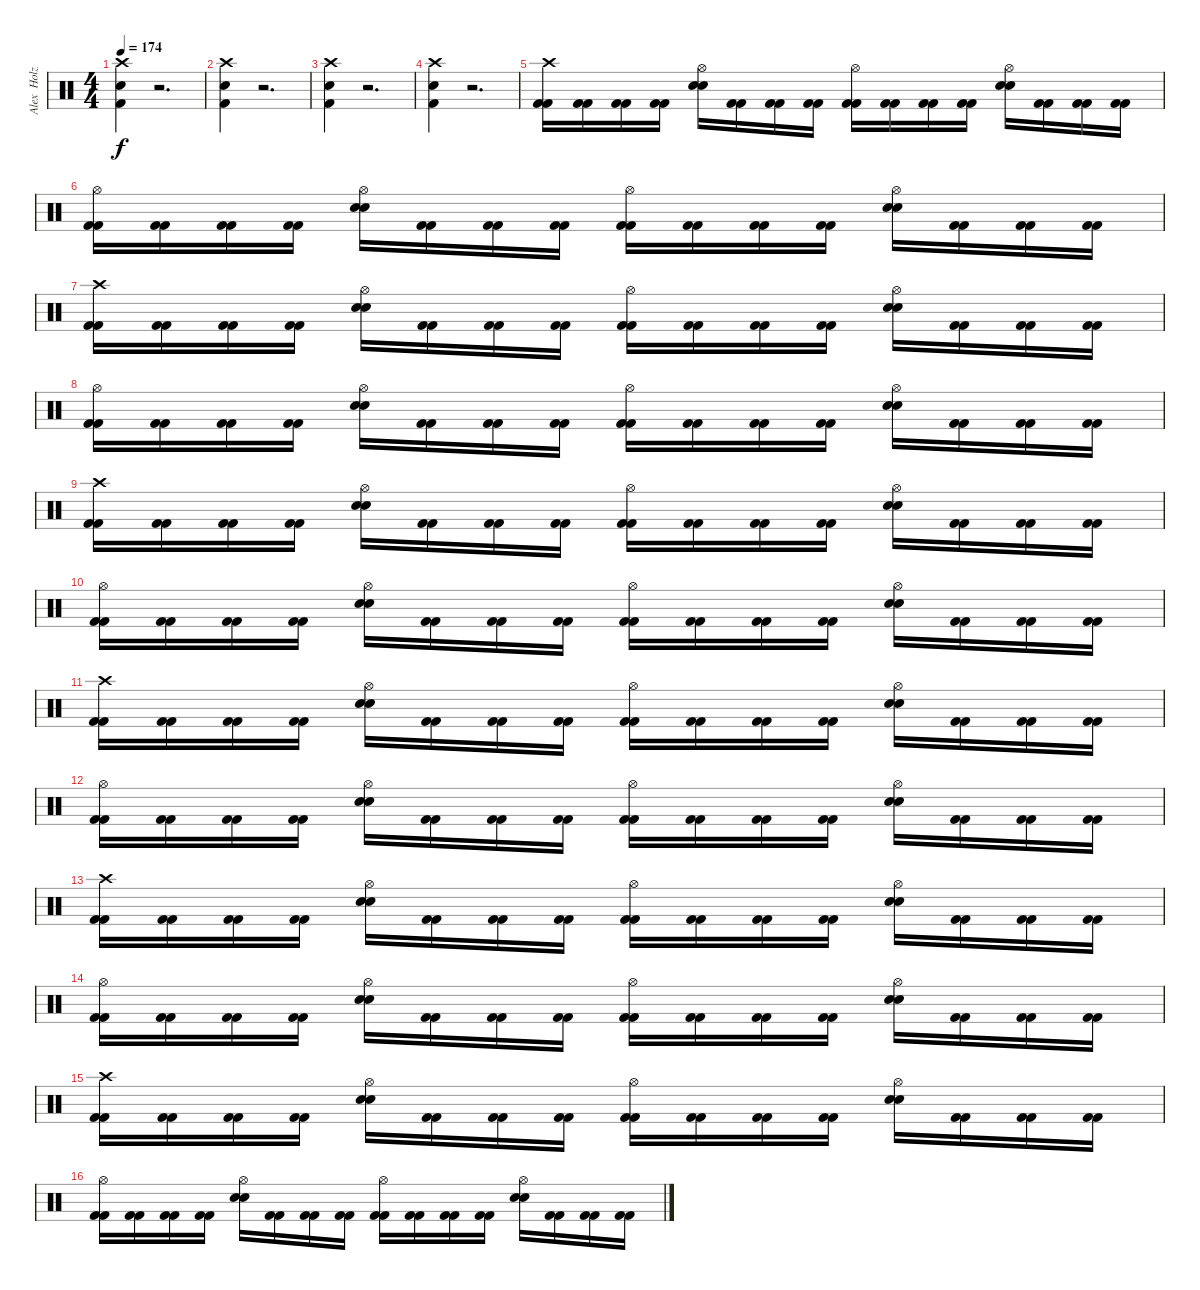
\track ("Alex  Holzwarth (Drums)" "Alex  Holz") {instrument percussion}
\staff {score}
\articulation defaults
\ts (4 4)
\tempo 174
\clef neutral
\ks c
("Crash high (hit)" "Snare (hit) 2" "Kick (hit) 2").4{dy f} r.2{d} |
("Crash high (hit)" "Snare (hit) 2" "Kick (hit) 2").4 r.2{d} |
("Crash high (hit)" "Snare (hit) 2" "Kick (hit) 2").4 r.2{d} |
("Crash high (hit)" "Snare (hit) 2" "Kick (hit) 2").4 r.2{d} |
("Crash high (hit)" "Kick (hit) 2" "Kick (hit) 2").16 ("Kick (hit) 2" "Kick (hit) 2").16 ("Kick (hit) 2" "Kick (hit) 2").16 ("Kick (hit) 2" "Kick (hit) 2").16 ("Hi-Hat (open)" "Snare (hit) 2" "Snare (hit) 2").16 ("Kick (hit) 2" "Kick (hit) 2").16 ("Kick (hit) 2" "Kick (hit) 2").16 ("Kick (hit) 2" "Kick (hit) 2").16 ("Hi-Hat (open)" "Kick (hit) 2" "Kick (hit) 2").16 ("Kick (hit) 2" "Kick (hit) 2").16 ("Kick (hit) 2" "Kick (hit) 2").16 ("Kick (hit) 2" "Kick (hit) 2").16 ("Hi-Hat (open)" "Snare (hit) 2" "Snare (hit) 2").16 ("Kick (hit) 2" "Kick (hit) 2").16 ("Kick (hit) 2" "Kick (hit) 2").16 ("Kick (hit) 2" "Kick (hit) 2").16 |
("Hi-Hat (open)" "Kick (hit) 2" "Kick (hit) 2").16 ("Kick (hit) 2" "Kick (hit) 2").16 ("Kick (hit) 2" "Kick (hit) 2").16 ("Kick (hit) 2" "Kick (hit) 2").16 ("Hi-Hat (open)" "Snare (hit) 2" "Snare (hit) 2").16 ("Kick (hit) 2" "Kick (hit) 2").16 ("Kick (hit) 2" "Kick (hit) 2").16 ("Kick (hit) 2" "Kick (hit) 2").16 ("Hi-Hat (open)" "Kick (hit) 2" "Kick (hit) 2").16 ("Kick (hit) 2" "Kick (hit) 2").16 ("Kick (hit) 2" "Kick (hit) 2").16 ("Kick (hit) 2" "Kick (hit) 2").16 ("Hi-Hat (open)" "Snare (hit) 2" "Snare (hit) 2").16 ("Kick (hit) 2" "Kick (hit) 2").16 ("Kick (hit) 2" "Kick (hit) 2").16 ("Kick (hit) 2" "Kick (hit) 2").16 |
("Crash high (hit)" "Kick (hit) 2" "Kick (hit) 2").16 ("Kick (hit) 2" "Kick (hit) 2").16 ("Kick (hit) 2" "Kick (hit) 2").16 ("Kick (hit) 2" "Kick (hit) 2").16 ("Hi-Hat (open)" "Snare (hit) 2" "Snare (hit) 2").16 ("Kick (hit) 2" "Kick (hit) 2").16 ("Kick (hit) 2" "Kick (hit) 2").16 ("Kick (hit) 2" "Kick (hit) 2").16 ("Hi-Hat (open)" "Kick (hit) 2" "Kick (hit) 2").16 ("Kick (hit) 2" "Kick (hit) 2").16 ("Kick (hit) 2" "Kick (hit) 2").16 ("Kick (hit) 2" "Kick (hit) 2").16 ("Hi-Hat (open)" "Snare (hit) 2" "Snare (hit) 2").16 ("Kick (hit) 2" "Kick (hit) 2").16 ("Kick (hit) 2" "Kick (hit) 2").16 ("Kick (hit) 2" "Kick (hit) 2").16 |
("Hi-Hat (open)" "Kick (hit) 2" "Kick (hit) 2").16 ("Kick (hit) 2" "Kick (hit) 2").16 ("Kick (hit) 2" "Kick (hit) 2").16 ("Kick (hit) 2" "Kick (hit) 2").16 ("Hi-Hat (open)" "Snare (hit) 2" "Snare (hit) 2").16 ("Kick (hit) 2" "Kick (hit) 2").16 ("Kick (hit) 2" "Kick (hit) 2").16 ("Kick (hit) 2" "Kick (hit) 2").16 ("Hi-Hat (open)" "Kick (hit) 2" "Kick (hit) 2").16 ("Kick (hit) 2" "Kick (hit) 2").16 ("Kick (hit) 2" "Kick (hit) 2").16 ("Kick (hit) 2" "Kick (hit) 2").16 ("Hi-Hat (open)" "Snare (hit) 2" "Snare (hit) 2").16 ("Kick (hit) 2" "Kick (hit) 2").16 ("Kick (hit) 2" "Kick (hit) 2").16 ("Kick (hit) 2" "Kick (hit) 2").16 |
("Crash high (hit)" "Kick (hit) 2" "Kick (hit) 2").16 ("Kick (hit) 2" "Kick (hit) 2").16 ("Kick (hit) 2" "Kick (hit) 2").16 ("Kick (hit) 2" "Kick (hit) 2").16 ("Hi-Hat (open)" "Snare (hit) 2" "Snare (hit) 2").16 ("Kick (hit) 2" "Kick (hit) 2").16 ("Kick (hit) 2" "Kick (hit) 2").16 ("Kick (hit) 2" "Kick (hit) 2").16 ("Hi-Hat (open)" "Kick (hit) 2" "Kick (hit) 2").16 ("Kick (hit) 2" "Kick (hit) 2").16 ("Kick (hit) 2" "Kick (hit) 2").16 ("Kick (hit) 2" "Kick (hit) 2").16 ("Hi-Hat (open)" "Snare (hit) 2" "Snare (hit) 2").16 ("Kick (hit) 2" "Kick (hit) 2").16 ("Kick (hit) 2" "Kick (hit) 2").16 ("Kick (hit) 2" "Kick (hit) 2").16 |
("Hi-Hat (open)" "Kick (hit) 2" "Kick (hit) 2").16 ("Kick (hit) 2" "Kick (hit) 2").16 ("Kick (hit) 2" "Kick (hit) 2").16 ("Kick (hit) 2" "Kick (hit) 2").16 ("Hi-Hat (open)" "Snare (hit) 2" "Snare (hit) 2").16 ("Kick (hit) 2" "Kick (hit) 2").16 ("Kick (hit) 2" "Kick (hit) 2").16 ("Kick (hit) 2" "Kick (hit) 2").16 ("Hi-Hat (open)" "Kick (hit) 2" "Kick (hit) 2").16 ("Kick (hit) 2" "Kick (hit) 2").16 ("Kick (hit) 2" "Kick (hit) 2").16 ("Kick (hit) 2" "Kick (hit) 2").16 ("Hi-Hat (open)" "Snare (hit) 2" "Snare (hit) 2").16 ("Kick (hit) 2" "Kick (hit) 2").16 ("Kick (hit) 2" "Kick (hit) 2").16 ("Kick (hit) 2" "Kick (hit) 2").16 |
("Crash high (hit)" "Kick (hit) 2" "Kick (hit) 2").16 ("Kick (hit) 2" "Kick (hit) 2").16 ("Kick (hit) 2" "Kick (hit) 2").16 ("Kick (hit) 2" "Kick (hit) 2").16 ("Hi-Hat (open)" "Snare (hit) 2" "Snare (hit) 2").16 ("Kick (hit) 2" "Kick (hit) 2").16 ("Kick (hit) 2" "Kick (hit) 2").16 ("Kick (hit) 2" "Kick (hit) 2").16 ("Hi-Hat (open)" "Kick (hit) 2" "Kick (hit) 2").16 ("Kick (hit) 2" "Kick (hit) 2").16 ("Kick (hit) 2" "Kick (hit) 2").16 ("Kick (hit) 2" "Kick (hit) 2").16 ("Hi-Hat (open)" "Snare (hit) 2" "Snare (hit) 2").16 ("Kick (hit) 2" "Kick (hit) 2").16 ("Kick (hit) 2" "Kick (hit) 2").16 ("Kick (hit) 2" "Kick (hit) 2").16 |
("Hi-Hat (open)" "Kick (hit) 2" "Kick (hit) 2").16 ("Kick (hit) 2" "Kick (hit) 2").16 ("Kick (hit) 2" "Kick (hit) 2").16 ("Kick (hit) 2" "Kick (hit) 2").16 ("Hi-Hat (open)" "Snare (hit) 2" "Snare (hit) 2").16 ("Kick (hit) 2" "Kick (hit) 2").16 ("Kick (hit) 2" "Kick (hit) 2").16 ("Kick (hit) 2" "Kick (hit) 2").16 ("Hi-Hat (open)" "Kick (hit) 2" "Kick (hit) 2").16 ("Kick (hit) 2" "Kick (hit) 2").16 ("Kick (hit) 2" "Kick (hit) 2").16 ("Kick (hit) 2" "Kick (hit) 2").16 ("Hi-Hat (open)" "Snare (hit) 2" "Snare (hit) 2").16 ("Kick (hit) 2" "Kick (hit) 2").16 ("Kick (hit) 2" "Kick (hit) 2").16 ("Kick (hit) 2" "Kick (hit) 2").16 |
("Crash high (hit)" "Kick (hit) 2" "Kick (hit) 2").16 ("Kick (hit) 2" "Kick (hit) 2").16 ("Kick (hit) 2" "Kick (hit) 2").16 ("Kick (hit) 2" "Kick (hit) 2").16 ("Hi-Hat (open)" "Snare (hit) 2" "Snare (hit) 2").16 ("Kick (hit) 2" "Kick (hit) 2").16 ("Kick (hit) 2" "Kick (hit) 2").16 ("Kick (hit) 2" "Kick (hit) 2").16 ("Hi-Hat (open)" "Kick (hit) 2" "Kick (hit) 2").16 ("Kick (hit) 2" "Kick (hit) 2").16 ("Kick (hit) 2" "Kick (hit) 2").16 ("Kick (hit) 2" "Kick (hit) 2").16 ("Hi-Hat (open)" "Snare (hit) 2" "Snare (hit) 2").16 ("Kick (hit) 2" "Kick (hit) 2").16 ("Kick (hit) 2" "Kick (hit) 2").16 ("Kick (hit) 2" "Kick (hit) 2").16 |
("Hi-Hat (open)" "Kick (hit) 2" "Kick (hit) 2").16 ("Kick (hit) 2" "Kick (hit) 2").16 ("Kick (hit) 2" "Kick (hit) 2").16 ("Kick (hit) 2" "Kick (hit) 2").16 ("Hi-Hat (open)" "Snare (hit) 2" "Snare (hit) 2").16 ("Kick (hit) 2" "Kick (hit) 2").16 ("Kick (hit) 2" "Kick (hit) 2").16 ("Kick (hit) 2" "Kick (hit) 2").16 ("Hi-Hat (open)" "Kick (hit) 2" "Kick (hit) 2").16 ("Kick (hit) 2" "Kick (hit) 2").16 ("Kick (hit) 2" "Kick (hit) 2").16 ("Kick (hit) 2" "Kick (hit) 2").16 ("Hi-Hat (open)" "Snare (hit) 2" "Snare (hit) 2").16 ("Kick (hit) 2" "Kick (hit) 2").16 ("Kick (hit) 2" "Kick (hit) 2").16 ("Kick (hit) 2" "Kick (hit) 2").16 |
("Crash high (hit)" "Kick (hit) 2" "Kick (hit) 2").16 ("Kick (hit) 2" "Kick (hit) 2").16 ("Kick (hit) 2" "Kick (hit) 2").16 ("Kick (hit) 2" "Kick (hit) 2").16 ("Hi-Hat (open)" "Snare (hit) 2" "Snare (hit) 2").16 ("Kick (hit) 2" "Kick (hit) 2").16 ("Kick (hit) 2" "Kick (hit) 2").16 ("Kick (hit) 2" "Kick (hit) 2").16 ("Hi-Hat (open)" "Kick (hit) 2" "Kick (hit) 2").16 ("Kick (hit) 2" "Kick (hit) 2").16 ("Kick (hit) 2" "Kick (hit) 2").16 ("Kick (hit) 2" "Kick (hit) 2").16 ("Hi-Hat (open)" "Snare (hit) 2" "Snare (hit) 2").16 ("Kick (hit) 2" "Kick (hit) 2").16 ("Kick (hit) 2" "Kick (hit) 2").16 ("Kick (hit) 2" "Kick (hit) 2").16 |
("Hi-Hat (open)" "Kick (hit) 2" "Kick (hit) 2").16 ("Kick (hit) 2" "Kick (hit) 2").16 ("Kick (hit) 2" "Kick (hit) 2").16 ("Kick (hit) 2" "Kick (hit) 2").16 ("Hi-Hat (open)" "Snare (hit) 2" "Snare (hit) 2").16 ("Kick (hit) 2" "Kick (hit) 2").16 ("Kick (hit) 2" "Kick (hit) 2").16 ("Kick (hit) 2" "Kick (hit) 2").16 ("Hi-Hat (open)" "Kick (hit) 2" "Kick (hit) 2").16 ("Kick (hit) 2" "Kick (hit) 2").16 ("Kick (hit) 2" "Kick (hit) 2").16 ("Kick (hit) 2" "Kick (hit) 2").16 ("Hi-Hat (open)" "Snare (hit) 2" "Snare (hit) 2").16 ("Kick (hit) 2" "Kick (hit) 2").16 ("Kick (hit) 2" "Kick (hit) 2").16 ("Kick (hit) 2" "Kick (hit) 2").16
